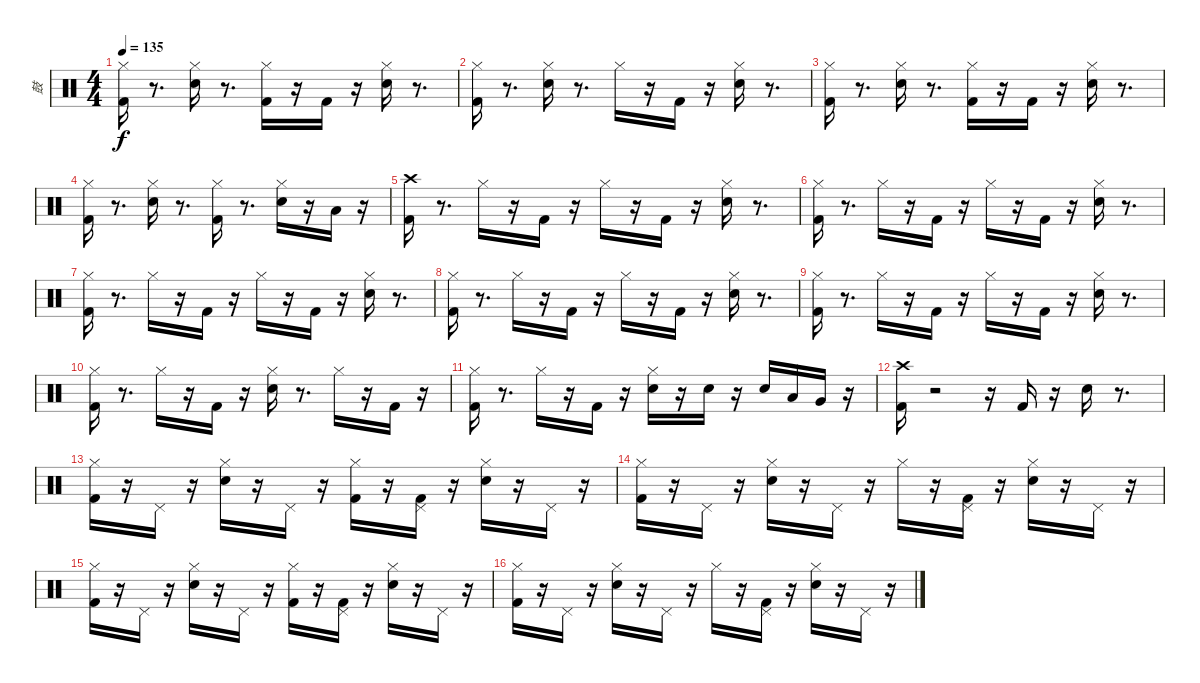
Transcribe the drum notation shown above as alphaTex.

\track ("鼓" "鼓") {instrument percussion}
\staff {score}
\articulation defaults
\ts (4 4)
\tempo 135
\clef neutral
\ks c
("Hi-Hat (closed)" "Kick (hit) 2").16{dy f} r.8{d} ("Hi-Hat (closed)" "Electric Snare (hit)").16 r.8{d} ("Hi-Hat (closed)" "Kick (hit) 2").16 r.16 "Kick (hit) 2".16 r.16 ("Hi-Hat (closed)" "Electric Snare (hit)").16 r.8{d} |
("Hi-Hat (closed)" "Kick (hit) 2").16 r.8{d} ("Hi-Hat (closed)" "Electric Snare (hit)").16 r.8{d} "Hi-Hat (closed)".16 r.16 "Kick (hit) 2".16 r.16 ("Hi-Hat (closed)" "Electric Snare (hit)").16 r.8{d} |
("Hi-Hat (closed)" "Kick (hit) 2").16 r.8{d} ("Electric Snare (hit)" "Hi-Hat (closed)").16 r.8{d} ("Kick (hit) 2" "Hi-Hat (closed)").16 r.16 "Kick (hit) 2".16 r.16 ("Electric Snare (hit)" "Hi-Hat (closed)").16 r.8{d} |
("Kick (hit) 2" "Hi-Hat (closed)").16 r.8{d} ("Electric Snare (hit)" "Hi-Hat (closed)").16 r.8{d} ("Kick (hit) 2" "Hi-Hat (closed)").16 r.8{d} ("Electric Snare (hit)" "Hi-Hat (closed)").16 r.16 "Low Tom (hit)".16 r.16 |
("Crash high (hit)" "Kick (hit) 2").16 r.8{d} "Hi-Hat (closed)".16 r.16 "Kick (hit) 2".16 r.16 "Hi-Hat (closed)".16 r.16 "Kick (hit) 2".16 r.16 ("Electric Snare (hit)" "Hi-Hat (closed)").16 r.8{d} |
("Hi-Hat (closed)" "Kick (hit) 2").16 r.8{d} "Hi-Hat (closed)".16 r.16 "Kick (hit) 2".16 r.16 "Hi-Hat (closed)".16 r.16 "Kick (hit) 2".16 r.16 ("Hi-Hat (closed)" "Electric Snare (hit)").16 r.8{d} |
("Hi-Hat (closed)" "Kick (hit) 2").16 r.8{d} "Hi-Hat (closed)".16 r.16 "Kick (hit) 2".16 r.16 "Hi-Hat (closed)".16 r.16 "Kick (hit) 2".16 r.16 ("Electric Snare (hit)" "Hi-Hat (closed)").16 r.8{d} |
("Hi-Hat (closed)" "Kick (hit) 2").16 r.8{d} "Hi-Hat (closed)".16 r.16 "Kick (hit) 2".16 r.16 "Hi-Hat (closed)".16 r.16 "Kick (hit) 2".16 r.16 ("Hi-Hat (closed)" "Electric Snare (hit)").16 r.8{d} |
("Hi-Hat (closed)" "Kick (hit) 2").16 r.8{d} "Hi-Hat (closed)".16 r.16 "Kick (hit) 2".16 r.16 "Hi-Hat (closed)".16 r.16 "Kick (hit) 2".16 r.16 ("Hi-Hat (closed)" "Electric Snare (hit)").16 r.8{d} |
("Kick (hit) 2" "Hi-Hat (closed)").16 r.8{d} "Hi-Hat (closed)".16 r.16 "Kick (hit) 2".16 r.16 ("Electric Snare (hit)" "Hi-Hat (closed)").16 r.8{d} "Hi-Hat (closed)".16 r.16 "Kick (hit) 2".16 r.16 |
("Hi-Hat (closed)" "Kick (hit) 2").16 r.8{d} "Hi-Hat (closed)".16 r.16 "Kick (hit) 2".16 r.16 ("Hi-Hat (closed)" "Electric Snare (hit)").16 r.16 "Electric Snare (hit)".16 r.16 "Electric Snare (hit)".16 "Low Tom (hit)".16 "Very Low Tom (hit)".16 r.16 |
("Crash high (hit)" "Kick (hit) 2").16 r.2 r.16 "Kick (hit) 2".16 r.16 "Electric Snare (hit)".16 r.8{d} |
("Hi-Hat (closed)" "Kick (hit) 2").16 r.16 "Pedal Hi-Hat (hit)".16 r.16 ("Hi-Hat (closed)" "Electric Snare (hit)").16 r.16 "Pedal Hi-Hat (hit)".16 r.16 ("Kick (hit) 2" "Hi-Hat (closed)").16 r.16 ("Kick (hit) 2" "Pedal Hi-Hat (hit)").16 r.16 ("Electric Snare (hit)" "Hi-Hat (closed)").16 r.16 "Pedal Hi-Hat (hit)".16 r.16 |
("Hi-Hat (closed)" "Kick (hit) 2").16 r.16 "Pedal Hi-Hat (hit)".16 r.16 ("Electric Snare (hit)" "Hi-Hat (closed)").16 r.16 "Pedal Hi-Hat (hit)".16 r.16 "Hi-Hat (closed)".16 r.16 ("Pedal Hi-Hat (hit)" "Kick (hit) 2").16 r.16 ("Hi-Hat (closed)" "Electric Snare (hit)").16 r.16 "Pedal Hi-Hat (hit)".16 r.16 |
("Hi-Hat (closed)" "Kick (hit) 2").16 r.16 "Pedal Hi-Hat (hit)".16 r.16 ("Electric Snare (hit)" "Hi-Hat (closed)").16 r.16 "Pedal Hi-Hat (hit)".16 r.16 ("Hi-Hat (closed)" "Kick (hit) 2").16 r.16 ("Pedal Hi-Hat (hit)" "Kick (hit) 2").16 r.16 ("Hi-Hat (closed)" "Electric Snare (hit)").16 r.16 "Pedal Hi-Hat (hit)".16 r.16 |
("Kick (hit) 2" "Hi-Hat (closed)").16 r.16 "Pedal Hi-Hat (hit)".16 r.16 ("Hi-Hat (closed)" "Electric Snare (hit)").16 r.16 "Pedal Hi-Hat (hit)".16 r.16 "Hi-Hat (closed)".16 r.16 ("Kick (hit) 2" "Pedal Hi-Hat (hit)").16 r.16 ("Electric Snare (hit)" "Hi-Hat (closed)").16 r.16 "Pedal Hi-Hat (hit)".16 r.16
